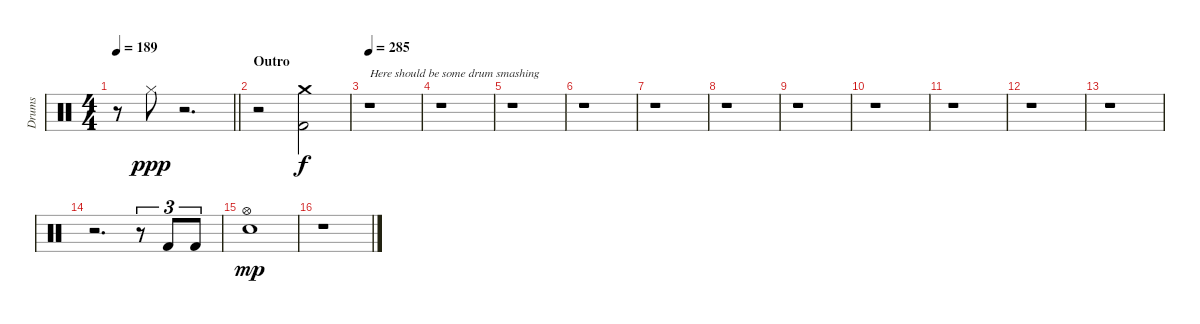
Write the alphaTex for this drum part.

\track ("Drums" "Drums") {instrument percussion}
\staff {score}
\articulation defaults
\ts (4 4)
\tempo 189
\clef neutral
\barLineRight lightlight
\ks c
r.8{dy mp} "Hi-Hat (closed)".8{dy ppp} r.2{d} |
\section ("" "Outro")
r.2 ("Crash medium (hit)" "Kick (hit) 2").2{dy f} |
\tempo 285
r.1{txt "Here should be some drum smashing"} |
r.1 |
r.1 |
r.1 |
r.1 |
r.1 |
r.1 |
r.1 |
r.1 |
r.1 |
r.1 |
r.2{d} r.8{tu (3 2)} "Kick (hit) 2".8{tu (3 2)} "Kick (hit) 2".8{tu (3 2)} |
("Hi-Hat (open)" "Snare (hit) 2").1{dy mp} |
r.1
